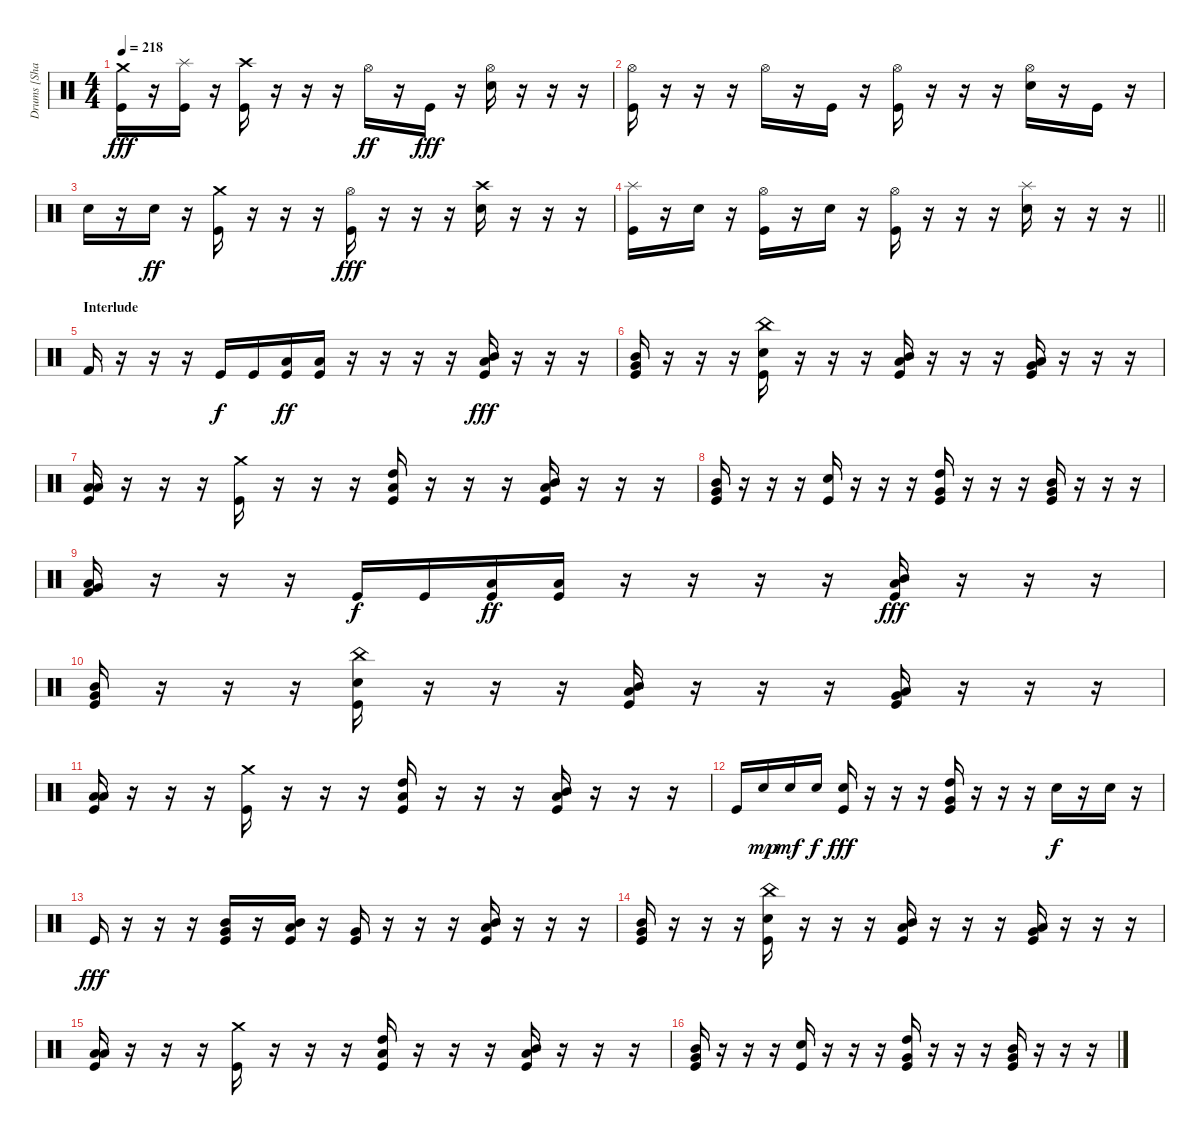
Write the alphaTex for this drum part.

\track ("Drums [Shannon Larkin]" "Drums [Sha") {instrument percussion}
\staff {score}
\articulation defaults
\ts (4 4)
\tempo 218
\clef neutral
\ks c
("Crash medium (hit)" "Kick (hit)").16{dy fff} r.16 ("Splash (hit)" "Kick (hit)").16 r.16 ("Crash high (hit)" "Kick (hit)").16 r.16 r.16 r.16 "Hi-Hat (open)".16{dy ff} r.16 "Kick (hit)".16{dy fff} r.16 ("Hi-Hat (open)" "Electric Snare (hit)").16 r.16 r.16 r.16 |
("Hi-Hat (open)" "Kick (hit)").16 r.16 r.16 r.16 "Hi-Hat (open)".16 r.16 "Kick (hit)".16 r.16 ("Hi-Hat (open)" "Kick (hit)").16 r.16 r.16 r.16 ("Hi-Hat (open)" "Electric Snare (hit)").16 r.16 "Kick (hit)".16 r.16 |
"Electric Snare (hit)".16 r.16 "Electric Snare (hit)".16{dy ff} r.16 ("Crash medium (hit)" "Kick (hit)").16 r.16 r.16 r.16 ("Hi-Hat (open)" "Kick (hit)").16{dy fff} r.16 r.16 r.16 ("Crash high (hit)" "Electric Snare (hit)").16 r.16 r.16 r.16 |
\barLineRight lightlight
("Splash (hit)" "Kick (hit)").16 r.16 "Electric Snare (hit)".16 r.16 ("Hi-Hat (open)" "Kick (hit)").16 r.16 "Electric Snare (hit)".16 r.16 ("Hi-Hat (open)" "Kick (hit)").16 r.16 r.16 r.16 ("Splash (hit)" "Electric Snare (hit)").16 r.16 r.16 r.16 |
\section ("" "Interlude")
"Kick (hit) 2".16 r.16 r.16 r.16 "Kick (hit)".16{dy f} "Kick (hit)".16 ("Low Tom (hit)" "Kick (hit)").16{dy ff} ("Low Floor Tom (hit)" "Kick (hit)").16 r.16 r.16 r.16 r.16 ("Mid Tom (hit)" "Low Tom (hit)" "Kick (hit)").16{dy fff} r.16 r.16 r.16 |
("Mid Tom (hit)" "Very Low Tom (hit)" "Kick (hit)").16 r.16 r.16 r.16 ("China (hit)" "Electric Snare (hit)" "Kick (hit)").16 r.16 r.16 r.16 ("Mid Tom (hit)" "Low Tom (hit)" "Kick (hit)").16 r.16 r.16 r.16 ("Low Tom (hit)" "Very Low Tom (hit)" "Kick (hit)").16 r.16 r.16 r.16 |
("Low Tom (hit)" "Low Floor Tom (hit)" "Kick (hit)").16 r.16 r.16 r.16 ("Crash medium (hit)" "Kick (hit)").16 r.16 r.16 r.16 ("High Tom (hit)" "Low Tom (hit)" "Kick (hit)").16 r.16 r.16 r.16 ("Mid Tom (hit)" "Low Tom (hit)" "Kick (hit)").16 r.16 r.16 r.16 |
("Mid Tom (hit)" "Very Low Tom (hit)" "Kick (hit)").16 r.16 r.16 r.16 ("Electric Snare (hit)" "Kick (hit)").16 r.16 r.16 r.16 ("High Tom (hit)" "Very Low Tom (hit)" "Kick (hit)").16 r.16 r.16 r.16 ("Mid Tom (hit)" "Very Low Tom (hit)" "Kick (hit)").16 r.16 r.16 r.16 |
("Low Tom (hit)" "Very Low Tom (hit)" "Kick (hit) 2").16 r.16 r.16 r.16 "Kick (hit)".16{dy f} "Kick (hit)".16 ("Low Tom (hit)" "Kick (hit)").16{dy ff} ("Low Floor Tom (hit)" "Kick (hit)").16 r.16 r.16 r.16 r.16 ("Mid Tom (hit)" "Low Tom (hit)" "Kick (hit)").16{dy fff} r.16 r.16 r.16 |
("Mid Tom (hit)" "Very Low Tom (hit)" "Kick (hit)").16 r.16 r.16 r.16 ("China (hit)" "Electric Snare (hit)" "Kick (hit)").16 r.16 r.16 r.16 ("Mid Tom (hit)" "Low Tom (hit)" "Kick (hit)").16 r.16 r.16 r.16 ("Low Tom (hit)" "Very Low Tom (hit)" "Kick (hit)").16 r.16 r.16 r.16 |
("Low Tom (hit)" "Low Floor Tom (hit)" "Kick (hit)").16 r.16 r.16 r.16 ("Crash medium (hit)" "Kick (hit)").16 r.16 r.16 r.16 ("High Tom (hit)" "Low Tom (hit)" "Kick (hit)").16 r.16 r.16 r.16 ("Mid Tom (hit)" "Low Tom (hit)" "Kick (hit)").16 r.16 r.16 r.16 |
"Kick (hit)".16 "Electric Snare (hit)".16{dy mp} "Electric Snare (hit)".16{dy mf} "Electric Snare (hit)".16{dy f} ("Electric Snare (hit)" "Kick (hit)").16{dy fff} r.16 r.16 r.16 ("High Tom (hit)" "Very Low Tom (hit)" "Kick (hit)").16 r.16 r.16 r.16 "Electric Snare (hit)".16{dy f} r.16 "Electric Snare (hit)".16 r.16 |
"Kick (hit)".16{dy fff} r.16 r.16 r.16 ("Mid Tom (hit)" "Very Low Tom (hit)" "Kick (hit)").16 r.16 ("Mid Tom (hit)" "Low Tom (hit)" "Kick (hit)").16 r.16 ("Very Low Tom (hit)" "Kick (hit)").16 r.16 r.16 r.16 ("Mid Tom (hit)" "Low Tom (hit)" "Kick (hit)").16 r.16 r.16 r.16 |
("Mid Tom (hit)" "Very Low Tom (hit)" "Kick (hit)").16 r.16 r.16 r.16 ("China (hit)" "Electric Snare (hit)" "Kick (hit)").16 r.16 r.16 r.16 ("Mid Tom (hit)" "Low Tom (hit)" "Kick (hit)").16 r.16 r.16 r.16 ("Low Tom (hit)" "Very Low Tom (hit)" "Kick (hit)").16 r.16 r.16 r.16 |
("Low Tom (hit)" "Low Floor Tom (hit)" "Kick (hit)").16 r.16 r.16 r.16 ("Crash medium (hit)" "Kick (hit)").16 r.16 r.16 r.16 ("High Tom (hit)" "Low Tom (hit)" "Kick (hit)").16 r.16 r.16 r.16 ("Mid Tom (hit)" "Low Tom (hit)" "Kick (hit)").16 r.16 r.16 r.16 |
("Mid Tom (hit)" "Very Low Tom (hit)" "Kick (hit)").16 r.16 r.16 r.16 ("Electric Snare (hit)" "Kick (hit)").16 r.16 r.16 r.16 ("High Tom (hit)" "Very Low Tom (hit)" "Kick (hit)").16 r.16 r.16 r.16 ("Mid Tom (hit)" "Very Low Tom (hit)" "Kick (hit)").16 r.16 r.16 r.16
